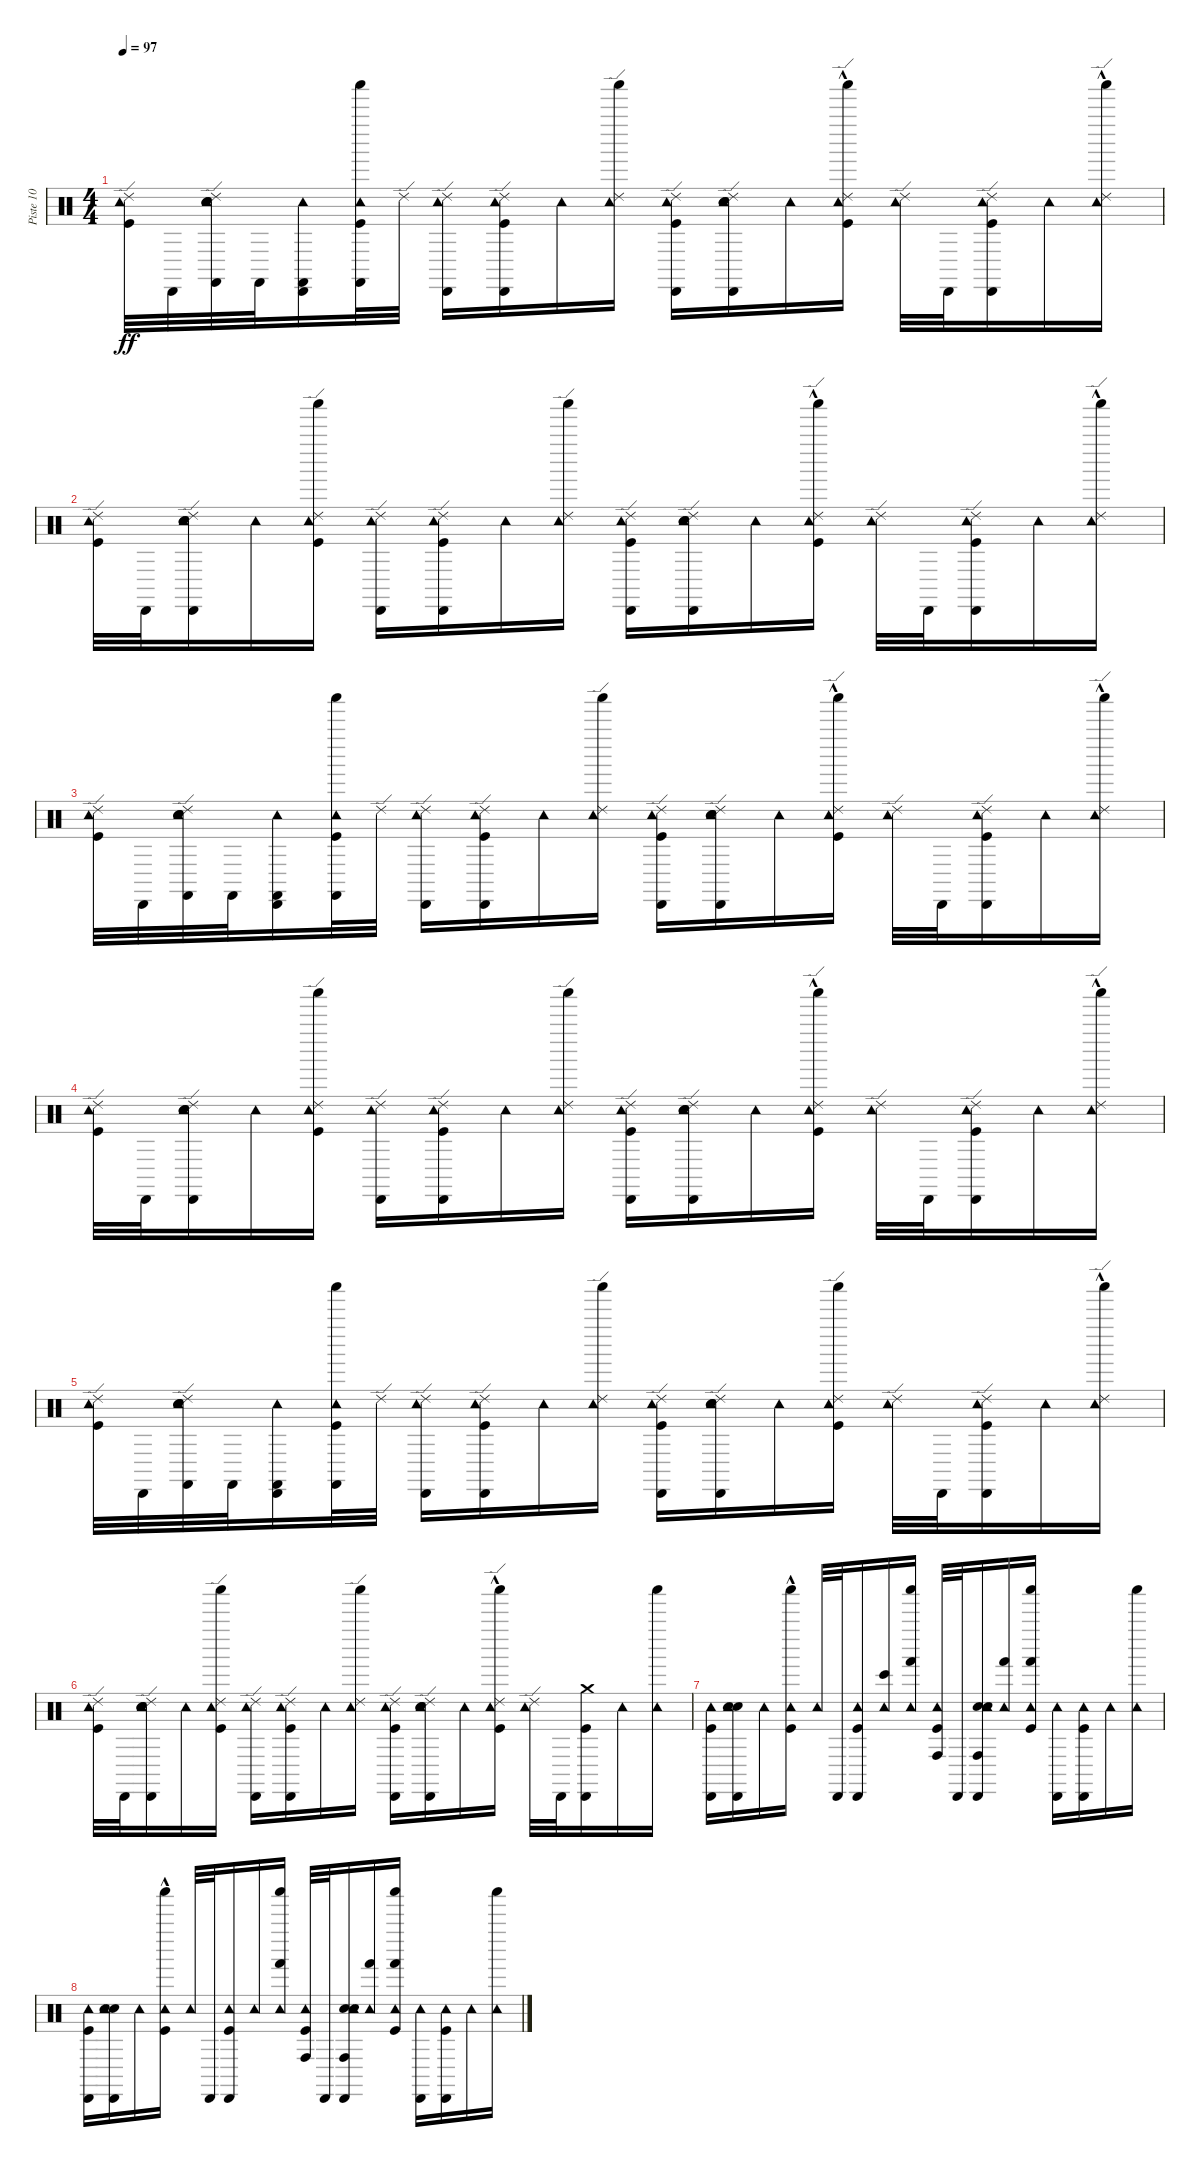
\track ("Piste 10" "Piste 10") {instrument percussion}
\staff {score}
\articulation defaults
\ts (4 4)
\tempo 97
\clef neutral
\ks c
("Kick (hit)" "Tambourine (hit)" "Ride (edge) 2").32{dy ff} "Cabasa (hit)".32 ("Castanets (hit)" "Hand Clap (hit)" "Electric Snare (hit)" "Tambourine (hit)" "Ride (edge) 2").32 "Castanets (hit)".32 ("Cabasa (hit)" "Castanets (hit)" "Tambourine (hit)").16 ("Shaker (hit)" "Castanets (hit)" "Kick (hit)" "Tambourine (hit)").32 "Ride (edge) 2".32 ("Cabasa (hit)" "Tambourine (hit)" "Ride (edge) 2").16 ("Cabasa (hit)" "Kick (hit)" "Tambourine (hit)" "Ride (edge) 2").16 "Tambourine (hit)".16 ("Shaker (hit)" "Tambourine (hit)" "Ride (edge) 2").16 ("Cabasa (hit)" "Kick (hit)" "Tambourine (hit)" "Ride (edge) 2").16 ("Cabasa (hit)" "Hand Clap (hit)" "Electric Snare (hit)" "Tambourine (hit)" "Ride (edge) 2").16 "Tambourine (hit)".16 ("Shaker (hit)"{hac} "Kick (hit)" "Tambourine (hit)" "Ride (edge) 2").16 ("Tambourine (hit)" "Ride (edge) 2").32 "Cabasa (hit)".32 ("Cabasa (hit)" "Kick (hit)" "Tambourine (hit)" "Ride (edge) 2").16 "Tambourine (hit)".16 ("Shaker (hit)"{hac} "Tambourine (hit)" "Ride (edge) 2").16 |
("Kick (hit)" "Tambourine (hit)" "Ride (edge) 2").32 "Cabasa (hit)".32 ("Cabasa (hit)" "Hand Clap (hit)" "Electric Snare (hit)" "Tambourine (hit)" "Ride (edge) 2").16 "Tambourine (hit)".16 ("Shaker (hit)" "Kick (hit)" "Tambourine (hit)" "Ride (edge) 2").16 ("Cabasa (hit)" "Tambourine (hit)" "Ride (edge) 2").16 ("Cabasa (hit)" "Kick (hit)" "Tambourine (hit)" "Ride (edge) 2").16 "Tambourine (hit)".16 ("Shaker (hit)" "Tambourine (hit)" "Ride (edge) 2").16 ("Cabasa (hit)" "Kick (hit)" "Tambourine (hit)" "Ride (edge) 2").16 ("Cabasa (hit)" "Hand Clap (hit)" "Electric Snare (hit)" "Tambourine (hit)" "Ride (edge) 2").16 "Tambourine (hit)".16 ("Shaker (hit)"{hac} "Kick (hit)" "Tambourine (hit)" "Ride (edge) 2").16 ("Tambourine (hit)" "Ride (edge) 2").32 "Cabasa (hit)".32 ("Cabasa (hit)" "Kick (hit)" "Tambourine (hit)" "Ride (edge) 2").16 "Tambourine (hit)".16 ("Shaker (hit)"{hac} "Tambourine (hit)" "Ride (edge) 2").16 |
("Kick (hit)" "Tambourine (hit)" "Ride (edge) 2").32 "Cabasa (hit)".32 ("Castanets (hit)" "Hand Clap (hit)" "Electric Snare (hit)" "Tambourine (hit)" "Ride (edge) 2").32 "Castanets (hit)".32 ("Cabasa (hit)" "Castanets (hit)" "Tambourine (hit)").16 ("Shaker (hit)" "Castanets (hit)" "Kick (hit)" "Tambourine (hit)").32 "Ride (edge) 2".32 ("Cabasa (hit)" "Tambourine (hit)" "Ride (edge) 2").16 ("Cabasa (hit)" "Kick (hit)" "Tambourine (hit)" "Ride (edge) 2").16 "Tambourine (hit)".16 ("Shaker (hit)" "Tambourine (hit)" "Ride (edge) 2").16 ("Cabasa (hit)" "Kick (hit)" "Tambourine (hit)" "Ride (edge) 2").16 ("Cabasa (hit)" "Hand Clap (hit)" "Electric Snare (hit)" "Tambourine (hit)" "Ride (edge) 2").16 "Tambourine (hit)".16 ("Shaker (hit)"{hac} "Kick (hit)" "Tambourine (hit)" "Ride (edge) 2").16 ("Tambourine (hit)" "Ride (edge) 2").32 "Cabasa (hit)".32 ("Cabasa (hit)" "Kick (hit)" "Tambourine (hit)" "Ride (edge) 2").16 "Tambourine (hit)".16 ("Shaker (hit)"{hac} "Tambourine (hit)" "Ride (edge) 2").16 |
("Kick (hit)" "Tambourine (hit)" "Ride (edge) 2").32 "Cabasa (hit)".32 ("Cabasa (hit)" "Hand Clap (hit)" "Electric Snare (hit)" "Tambourine (hit)" "Ride (edge) 2").16 "Tambourine (hit)".16 ("Shaker (hit)" "Kick (hit)" "Tambourine (hit)" "Ride (edge) 2").16 ("Cabasa (hit)" "Tambourine (hit)" "Ride (edge) 2").16 ("Cabasa (hit)" "Kick (hit)" "Tambourine (hit)" "Ride (edge) 2").16 "Tambourine (hit)".16 ("Shaker (hit)" "Tambourine (hit)" "Ride (edge) 2").16 ("Cabasa (hit)" "Kick (hit)" "Tambourine (hit)" "Ride (edge) 2").16 ("Cabasa (hit)" "Hand Clap (hit)" "Electric Snare (hit)" "Tambourine (hit)" "Ride (edge) 2").16 "Tambourine (hit)".16 ("Shaker (hit)"{hac} "Kick (hit)" "Tambourine (hit)" "Ride (edge) 2").16 ("Tambourine (hit)" "Ride (edge) 2").32 "Cabasa (hit)".32 ("Cabasa (hit)" "Kick (hit)" "Tambourine (hit)" "Ride (edge) 2").16 "Tambourine (hit)".16 ("Shaker (hit)"{hac} "Tambourine (hit)" "Ride (edge) 2").16 |
("Kick (hit)" "Tambourine (hit)" "Ride (edge) 2").32 "Cabasa (hit)".32 ("Castanets (hit)" "Hand Clap (hit)" "Electric Snare (hit)" "Tambourine (hit)" "Ride (edge) 2").32 "Castanets (hit)".32 ("Cabasa (hit)" "Castanets (hit)" "Tambourine (hit)").16 ("Shaker (hit)" "Castanets (hit)" "Kick (hit)" "Tambourine (hit)").32 "Ride (edge) 2".32 ("Cabasa (hit)" "Tambourine (hit)" "Ride (edge) 2").16 ("Cabasa (hit)" "Kick (hit)" "Tambourine (hit)" "Ride (edge) 2").16 "Tambourine (hit)".16 ("Shaker (hit)" "Tambourine (hit)" "Ride (edge) 2").16 ("Cabasa (hit)" "Kick (hit)" "Tambourine (hit)" "Ride (edge) 2").16 ("Cabasa (hit)" "Hand Clap (hit)" "Electric Snare (hit)" "Tambourine (hit)" "Ride (edge) 2").16 "Tambourine (hit)".16 ("Shaker (hit)" "Kick (hit)" "Tambourine (hit)" "Ride (edge) 2").16 ("Tambourine (hit)" "Ride (edge) 2").32 "Cabasa (hit)".32 ("Cabasa (hit)" "Kick (hit)" "Tambourine (hit)" "Ride (edge) 2").16 "Tambourine (hit)".16 ("Shaker (hit)"{hac} "Tambourine (hit)" "Ride (edge) 2").16 |
("Kick (hit)" "Tambourine (hit)" "Ride (edge) 2").32 "Cabasa (hit)".32 ("Cabasa (hit)" "Hand Clap (hit)" "Electric Snare (hit)" "Tambourine (hit)" "Ride (edge) 2").16 "Tambourine (hit)".16 ("Shaker (hit)" "Kick (hit)" "Tambourine (hit)" "Ride (edge) 2").16 ("Cabasa (hit)" "Tambourine (hit)" "Ride (edge) 2").16 ("Cabasa (hit)" "Kick (hit)" "Tambourine (hit)" "Ride (edge) 2").16 "Tambourine (hit)".16 ("Shaker (hit)" "Tambourine (hit)" "Ride (edge) 2").16 ("Cabasa (hit)" "Kick (hit)" "Tambourine (hit)" "Ride (edge) 2").16 ("Cabasa (hit)" "Hand Clap (hit)" "Electric Snare (hit)" "Tambourine (hit)" "Ride (edge) 2").16 "Tambourine (hit)".16 ("Shaker (hit)"{hac} "Kick (hit)" "Tambourine (hit)" "Ride (edge) 2").16 ("Tambourine (hit)" "Ride (edge) 2").32 "Cabasa (hit)".32 ("Cabasa (hit)" "Kick (hit)" "Crash medium (hit)").16 "Tambourine (hit)".16 ("Shaker (hit)" "Tambourine (hit)").16 |
("Cabasa (hit)" "Kick (hit)" "Tambourine (hit)").16 ("Cabasa (hit)" "Hand Clap (hit)" "Electric Snare (hit)" "Tambourine (hit)").16 "Tambourine (hit)".16 ("Shaker (hit)"{hac} "Kick (hit)" "Tambourine (hit)").16 "Tambourine (hit)".32 "Cabasa (hit)".32 ("Cabasa (hit)" "Kick (hit)" "Tambourine (hit)").16 ("Bongo High (hit)" "Tambourine (hit)").16 ("Hand (hit)" "Shaker (hit)" "Tambourine (hit)").16 ("Conga high (hit)" "Kick (hit)" "Tambourine (hit)").32 "Cabasa (hit)".32 ("Conga high (hit)" "Cabasa (hit)" "Hand Clap (hit)" "Electric Snare (hit)" "Tambourine (hit)").16 ("Hand (hit)" "Tambourine (hit)").16 ("Hand (hit)" "Shaker (hit)" "Kick (hit)" "Tambourine (hit)").16 ("Cabasa (hit)" "Tambourine (hit)").16 ("Cabasa (hit)" "Kick (hit)" "Tambourine (hit)").16 "Tambourine (hit)".16 ("Shaker (hit)" "Tambourine (hit)").16 |
("Cabasa (hit)" "Kick (hit)" "Tambourine (hit)").16 ("Cabasa (hit)" "Hand Clap (hit)" "Electric Snare (hit)" "Tambourine (hit)").16 "Tambourine (hit)".16 ("Shaker (hit)"{hac} "Kick (hit)" "Tambourine (hit)").16 "Tambourine (hit)".32 "Cabasa (hit)".32 ("Cabasa (hit)" "Kick (hit)" "Tambourine (hit)").16 "Tambourine (hit)".16 ("Hand (hit)" "Shaker (hit)" "Tambourine (hit)").16 ("Conga high (hit)" "Kick (hit)" "Tambourine (hit)").32 "Cabasa (hit)".32 ("Conga high (hit)" "Cabasa (hit)" "Hand Clap (hit)" "Electric Snare (hit)" "Tambourine (hit)").16 ("Hand (hit)" "Tambourine (hit)").16 ("Hand (hit)" "Shaker (hit)" "Kick (hit)" "Tambourine (hit)").16 ("Cabasa (hit)" "Tambourine (hit)").16 ("Cabasa (hit)" "Kick (hit)" "Tambourine (hit)").16 "Tambourine (hit)".16 ("Shaker (hit)" "Tambourine (hit)").16
